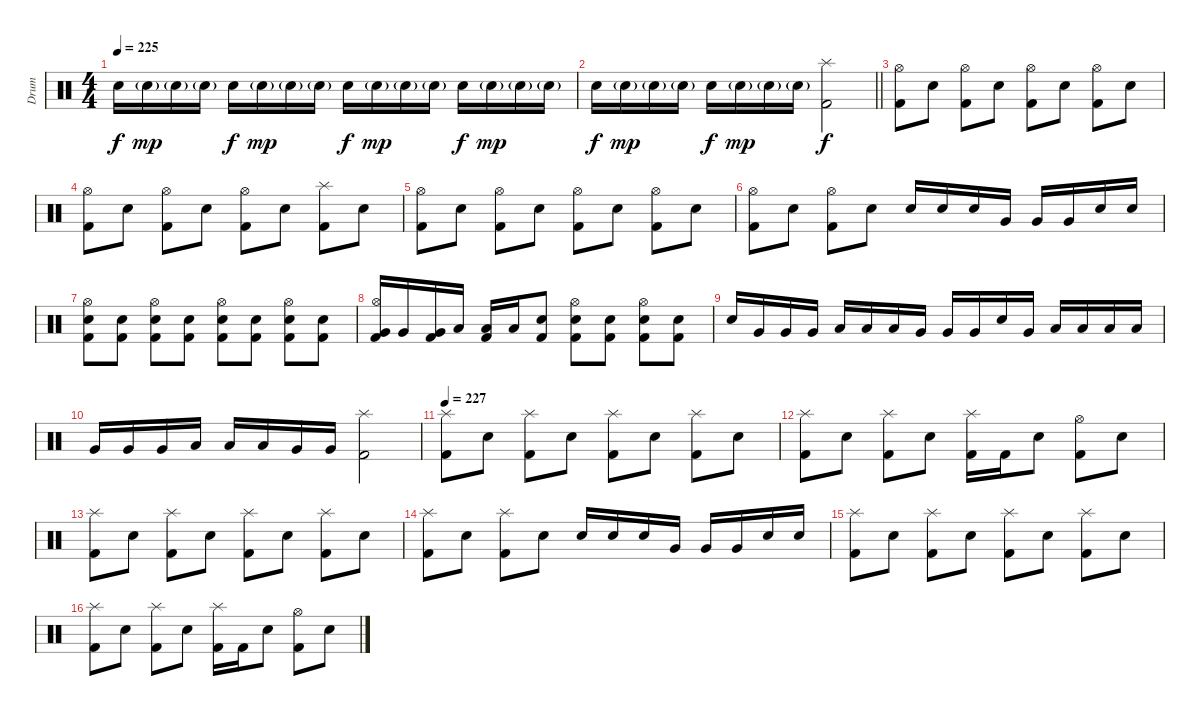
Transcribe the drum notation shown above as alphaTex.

\track ("Drum" "Drum") {instrument percussion}
\staff {score}
\articulation defaults
\ts (4 4)
\tempo 225
\clef neutral
\ks c "Electric Snare (hit)".16{dy f volume 13} "Electric Snare (hit)"{g}.16{dy mp} "Electric Snare (hit)"{g}.16 "Electric Snare (hit)"{g}.16 "Electric Snare (hit)".16{dy f} "Electric Snare (hit)"{g}.16{dy mp} "Electric Snare (hit)"{g}.16 "Electric Snare (hit)"{g}.16 "Electric Snare (hit)".16{dy f} "Electric Snare (hit)"{g}.16{dy mp} "Electric Snare (hit)"{g}.16 "Electric Snare (hit)"{g}.16 "Electric Snare (hit)".16{dy f} "Electric Snare (hit)"{g}.16{dy mp} "Electric Snare (hit)"{g}.16 "Electric Snare (hit)"{g}.16
|
\barLineRight lightlight "Electric Snare (hit)".16{dy f} "Electric Snare (hit)"{g}.16{dy mp} "Electric Snare (hit)"{g}.16 "Electric Snare (hit)"{g}.16 "Electric Snare (hit)".16{dy f} "Electric Snare (hit)"{g}.16{dy mp} "Electric Snare (hit)"{g}.16 "Electric Snare (hit)"{g}.16
("Splash (hit)" "Kick (hit) 2").2{dy f} |
("Hi-Hat (open)" "Kick (hit) 2").8 "Electric Snare (hit)".8 ("Hi-Hat (open)" "Kick (hit) 2").8 "Electric Snare (hit)".8 ("Hi-Hat (open)" "Kick (hit) 2").8 "Electric Snare (hit)".8 ("Hi-Hat (open)" "Kick (hit) 2").8 "Electric Snare (hit)".8 |
("Hi-Hat (open)" "Kick (hit) 2").8 "Electric Snare (hit)".8 ("Hi-Hat (open)" "Kick (hit) 2").8 "Electric Snare (hit)".8 ("Hi-Hat (open)" "Kick (hit) 2").8 "Electric Snare (hit)".8 ("Splash (hit)" "Kick (hit) 2").8 "Electric Snare (hit)".8 |
("Hi-Hat (open)" "Kick (hit) 2").8 "Electric Snare (hit)".8 ("Hi-Hat (open)" "Kick (hit) 2").8 "Electric Snare (hit)".8 ("Hi-Hat (open)" "Kick (hit) 2").8 "Electric Snare (hit)".8 ("Hi-Hat (open)" "Kick (hit) 2").8 "Electric Snare (hit)".8 |
("Hi-Hat (open)" "Kick (hit) 2").8 "Electric Snare (hit)".8 ("Hi-Hat (open)" "Kick (hit) 2").8 "Electric Snare (hit)".8 "Electric Snare (hit)".16 "Electric Snare (hit)".16 "Electric Snare (hit)".16 "Very Low Tom (hit)".16 "Very Low Tom (hit)".16 "Very Low Tom (hit)".16 "Electric Snare (hit)".16 "Electric Snare (hit)".16 |
("Hi-Hat (open)" "Electric Snare (hit)" "Kick (hit) 2").8 ("Electric Snare (hit)" "Kick (hit) 2").8 ("Hi-Hat (open)" "Electric Snare (hit)" "Kick (hit) 2").8 ("Electric Snare (hit)" "Kick (hit) 2").8 ("Hi-Hat (open)" "Electric Snare (hit)" "Kick (hit) 2").8 ("Electric Snare (hit)" "Kick (hit) 2").8 ("Hi-Hat (open)" "Electric Snare (hit)" "Kick (hit) 2").8 ("Electric Snare (hit)" "Kick (hit) 2").8 |
("Hi-Hat (open)" "Very Low Tom (hit)" "Kick (hit) 2").16 "Very Low Tom (hit)".16 ("Very Low Tom (hit)" "Kick (hit) 2").16 "Low Tom (hit)".16 ("Low Tom (hit)" "Kick (hit) 2").16 "Low Tom (hit)".16 ("Electric Snare (hit)" "Kick (hit) 2").8 ("Hi-Hat (open)" "Electric Snare (hit)" "Kick (hit) 2").8 ("Electric Snare (hit)" "Kick (hit) 2").8 ("Hi-Hat (open)" "Electric Snare (hit)" "Kick (hit) 2").8 ("Electric Snare (hit)" "Kick (hit) 2").8 |
"Electric Snare (hit)".16 "Very Low Tom (hit)".16 "Very Low Tom (hit)".16 "Very Low Tom (hit)".16 "Low Tom (hit)".16 "Low Tom (hit)".16 "Low Tom (hit)".16 "Very Low Tom (hit)".16 "Very Low Tom (hit)".16 "Very Low Tom (hit)".16 "Electric Snare (hit)".16 "Very Low Tom (hit)".16 "Low Tom (hit)".16 "Low Tom (hit)".16 "Low Tom (hit)".16 "Low Tom (hit)".16 |
"Very Low Tom (hit)".16 "Very Low Tom (hit)".16 "Very Low Tom (hit)".16 "Low Tom (hit)".16 "Low Tom (hit)".16 "Low Tom (hit)".16 "Very Low Tom (hit)".16 "Very Low Tom (hit)".16 ("Splash (hit)" "Kick (hit) 2").2 |
\tempo 227
("Splash (hit)" "Kick (hit) 2").8 "Electric Snare (hit)".8 ("Splash (hit)" "Kick (hit) 2").8 "Electric Snare (hit)".8 ("Splash (hit)" "Kick (hit) 2").8 "Electric Snare (hit)".8 ("Splash (hit)" "Kick (hit) 2").8 "Electric Snare (hit)".8 |
("Splash (hit)" "Kick (hit) 2").8 "Electric Snare (hit)".8 ("Splash (hit)" "Kick (hit) 2").8 "Electric Snare (hit)".8 ("Splash (hit)" "Kick (hit) 2").16 "Kick (hit) 2".16 "Electric Snare (hit)".8 ("Hi-Hat (open)" "Kick (hit) 2").8 "Electric Snare (hit)".8 |
("Splash (hit)" "Kick (hit) 2").8 "Electric Snare (hit)".8 ("Splash (hit)" "Kick (hit) 2").8 "Electric Snare (hit)".8 ("Splash (hit)" "Kick (hit) 2").8 "Electric Snare (hit)".8 ("Splash (hit)" "Kick (hit) 2").8 "Electric Snare (hit)".8 |
("Splash (hit)" "Kick (hit) 2").8 "Electric Snare (hit)".8 ("Splash (hit)" "Kick (hit) 2").8 "Electric Snare (hit)".8 "Electric Snare (hit)".16 "Electric Snare (hit)".16 "Electric Snare (hit)".16 "Very Low Tom (hit)".16 "Very Low Tom (hit)".16 "Very Low Tom (hit)".16 "Electric Snare (hit)".16 "Electric Snare (hit)".16 |
("Splash (hit)" "Kick (hit) 2").8 "Electric Snare (hit)".8 ("Splash (hit)" "Kick (hit) 2").8 "Electric Snare (hit)".8 ("Splash (hit)" "Kick (hit) 2").8 "Electric Snare (hit)".8 ("Splash (hit)" "Kick (hit) 2").8 "Electric Snare (hit)".8 |
("Splash (hit)" "Kick (hit) 2").8 "Electric Snare (hit)".8 ("Splash (hit)" "Kick (hit) 2").8 "Electric Snare (hit)".8 ("Splash (hit)" "Kick (hit) 2").16 "Kick (hit) 2".16 "Electric Snare (hit)".8 ("Hi-Hat (open)" "Kick (hit) 2").8 "Electric Snare (hit)".8
